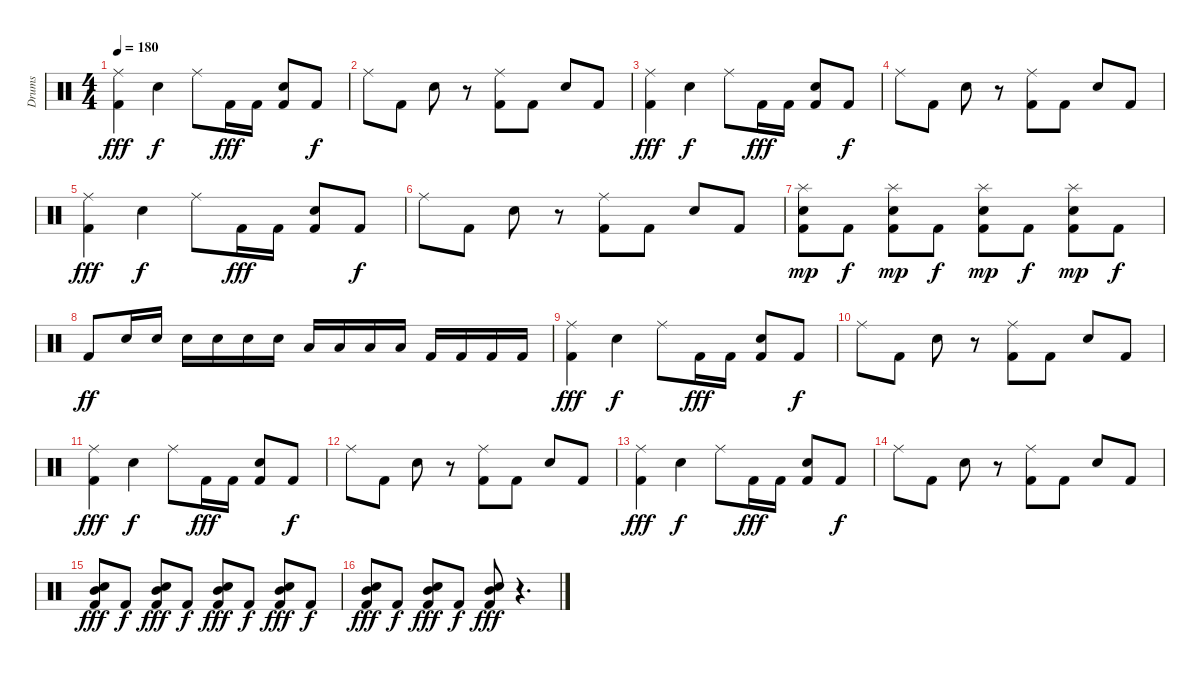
\track ("Drums" "Drums") {instrument percussion}
\staff {score}
\articulation defaults
\ts (4 4)
\tempo 180
\clef neutral
\ks c
("Ride (middle)" "Kick (hit) 2").4{dy fff} "Snare (hit) 2".4{dy f} "Ride (middle)".8 "Kick (hit) 2".16{dy fff} "Kick (hit) 2".16 ("Snare (hit) 2" "Kick (hit) 2").8 "Kick (hit) 2".8{dy f} |
"Ride (middle)".8 "Kick (hit) 2".8 "Snare (hit) 2".8 r.8 ("Ride (middle)" "Kick (hit) 2").8 "Kick (hit) 2".8 "Snare (hit) 2".8 "Kick (hit) 2".8 |
("Ride (middle)" "Kick (hit) 2").4{dy fff} "Snare (hit) 2".4{dy f} "Ride (middle)".8 "Kick (hit) 2".16{dy fff} "Kick (hit) 2".16 ("Snare (hit) 2" "Kick (hit) 2").8 "Kick (hit) 2".8{dy f} |
"Ride (middle)".8 "Kick (hit) 2".8 "Snare (hit) 2".8 r.8 ("Ride (middle)" "Kick (hit) 2").8 "Kick (hit) 2".8 "Snare (hit) 2".8 "Kick (hit) 2".8 |
("Ride (middle)" "Kick (hit) 2").4{dy fff} "Snare (hit) 2".4{dy f} "Ride (middle)".8 "Kick (hit) 2".16{dy fff} "Kick (hit) 2".16 ("Snare (hit) 2" "Kick (hit) 2").8 "Kick (hit) 2".8{dy f} |
"Ride (middle)".8 "Kick (hit) 2".8 "Snare (hit) 2".8 r.8 ("Ride (middle)" "Kick (hit) 2").8 "Kick (hit) 2".8 "Snare (hit) 2".8 "Kick (hit) 2".8 |
("Splash (hit)" "Snare (hit) 2" "Kick (hit) 2").8{dy mp} "Kick (hit) 2".8{dy f} ("Splash (hit)" "Snare (hit) 2" "Kick (hit) 2").8{dy mp} "Kick (hit) 2".8{dy f} ("Splash (hit)" "Snare (hit) 2" "Kick (hit) 2").8{dy mp} "Kick (hit) 2".8{dy f} ("Splash (hit)" "Snare (hit) 2" "Kick (hit) 2").8{dy mp} "Kick (hit) 2".8{dy f} |
"Kick (hit) 2".8{dy ff} "Snare (hit) 2".16 "Snare (hit) 2".16 "Snare (hit) 2".16 "Snare (hit) 2".16 "Snare (hit) 2".16 "Snare (hit) 2".16 "Low Tom (hit)".16 "Low Tom (hit)".16 "Low Tom (hit)".16 "Low Tom (hit)".16 "Kick (hit) 2".16 "Kick (hit) 2".16 "Kick (hit) 2".16 "Kick (hit) 2".16 |
("Ride (middle)" "Kick (hit) 2").4{dy fff} "Snare (hit) 2".4{dy f} "Ride (middle)".8 "Kick (hit) 2".16{dy fff} "Kick (hit) 2".16 ("Snare (hit) 2" "Kick (hit) 2").8 "Kick (hit) 2".8{dy f} |
"Ride (middle)".8 "Kick (hit) 2".8 "Snare (hit) 2".8 r.8 ("Ride (middle)" "Kick (hit) 2").8 "Kick (hit) 2".8 "Snare (hit) 2".8 "Kick (hit) 2".8 |
("Ride (middle)" "Kick (hit) 2").4{dy fff} "Snare (hit) 2".4{dy f} "Ride (middle)".8 "Kick (hit) 2".16{dy fff} "Kick (hit) 2".16 ("Snare (hit) 2" "Kick (hit) 2").8 "Kick (hit) 2".8{dy f} |
"Ride (middle)".8 "Kick (hit) 2".8 "Snare (hit) 2".8 r.8 ("Ride (middle)" "Kick (hit) 2").8 "Kick (hit) 2".8 "Snare (hit) 2".8 "Kick (hit) 2".8 |
("Ride (middle)" "Kick (hit) 2").4{dy fff} "Snare (hit) 2".4{dy f} "Ride (middle)".8 "Kick (hit) 2".16{dy fff} "Kick (hit) 2".16 ("Snare (hit) 2" "Kick (hit) 2").8 "Kick (hit) 2".8{dy f} |
"Ride (middle)".8 "Kick (hit) 2".8 "Snare (hit) 2".8 r.8 ("Ride (middle)" "Kick (hit) 2").8 "Kick (hit) 2".8 "Snare (hit) 2".8 "Kick (hit) 2".8 |
("Mid Tom (hit)" "Snare (hit) 2" "Kick (hit) 2").8{dy fff} "Kick (hit) 2".8{dy f} ("Mid Tom (hit)" "Snare (hit) 2" "Kick (hit) 2").8{dy fff} "Kick (hit) 2".8{dy f} ("Mid Tom (hit)" "Snare (hit) 2" "Kick (hit) 2").8{dy fff} "Kick (hit) 2".8{dy f} ("Mid Tom (hit)" "Snare (hit) 2" "Kick (hit) 2").8{dy fff} "Kick (hit) 2".8{dy f} |
("Mid Tom (hit)" "Snare (hit) 2" "Kick (hit) 2").8{dy fff} "Kick (hit) 2".8{dy f} ("Mid Tom (hit)" "Snare (hit) 2" "Kick (hit) 2").8{dy fff} "Kick (hit) 2".8{dy f} ("Mid Tom (hit)" "Snare (hit) 2" "Kick (hit) 2").8{dy fff} r.4{d}
